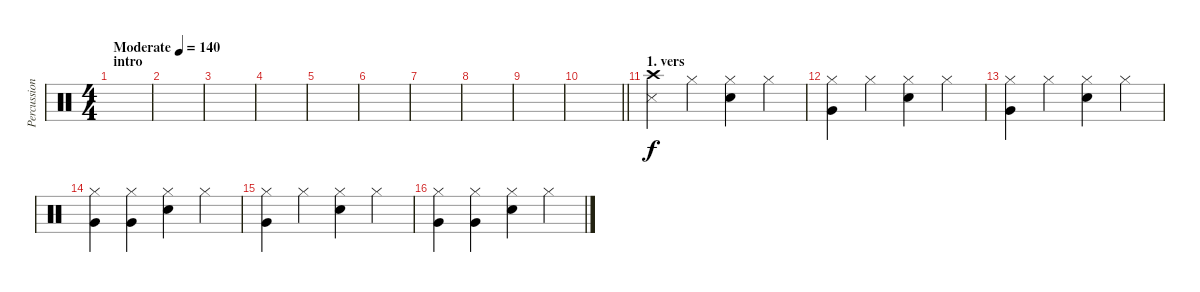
\track ("Percussion" "Percussion") {instrument percussion}
\staff {score}
\articulation defaults
\ts (4 4)
\section ("" "intro")
\tempo (140 "Moderate")
\clef neutral
\ks c
|
|
|
|
|
|
|
|
|
\barLineRight lightlight
|
\section ("" "1. vers")
("Crash high (hit)" "Metronome (hit)").4 "Hi-Hat (closed)".4 ("Hi-Hat (closed)" "Electric Snare (hit)").4 "Hi-Hat (closed)".4 |
("Hi-Hat (closed)" "Very Low Tom (hit)").4 "Hi-Hat (closed)".4 ("Hi-Hat (closed)" "Electric Snare (hit)").4 "Hi-Hat (closed)".4 |
("Hi-Hat (closed)" "Very Low Tom (hit)").4 "Hi-Hat (closed)".4 ("Hi-Hat (closed)" "Electric Snare (hit)").4 "Hi-Hat (closed)".4 |
("Hi-Hat (closed)" "Very Low Tom (hit)").4 ("Hi-Hat (closed)" "Very Low Tom (hit)").4 ("Hi-Hat (closed)" "Electric Snare (hit)").4 "Hi-Hat (closed)".4 |
("Hi-Hat (closed)" "Very Low Tom (hit)").4 "Hi-Hat (closed)".4 ("Hi-Hat (closed)" "Electric Snare (hit)").4 "Hi-Hat (closed)".4 |
("Hi-Hat (closed)" "Very Low Tom (hit)").4 ("Hi-Hat (closed)" "Very Low Tom (hit)").4 ("Hi-Hat (closed)" "Electric Snare (hit)").4 "Hi-Hat (closed)".4
